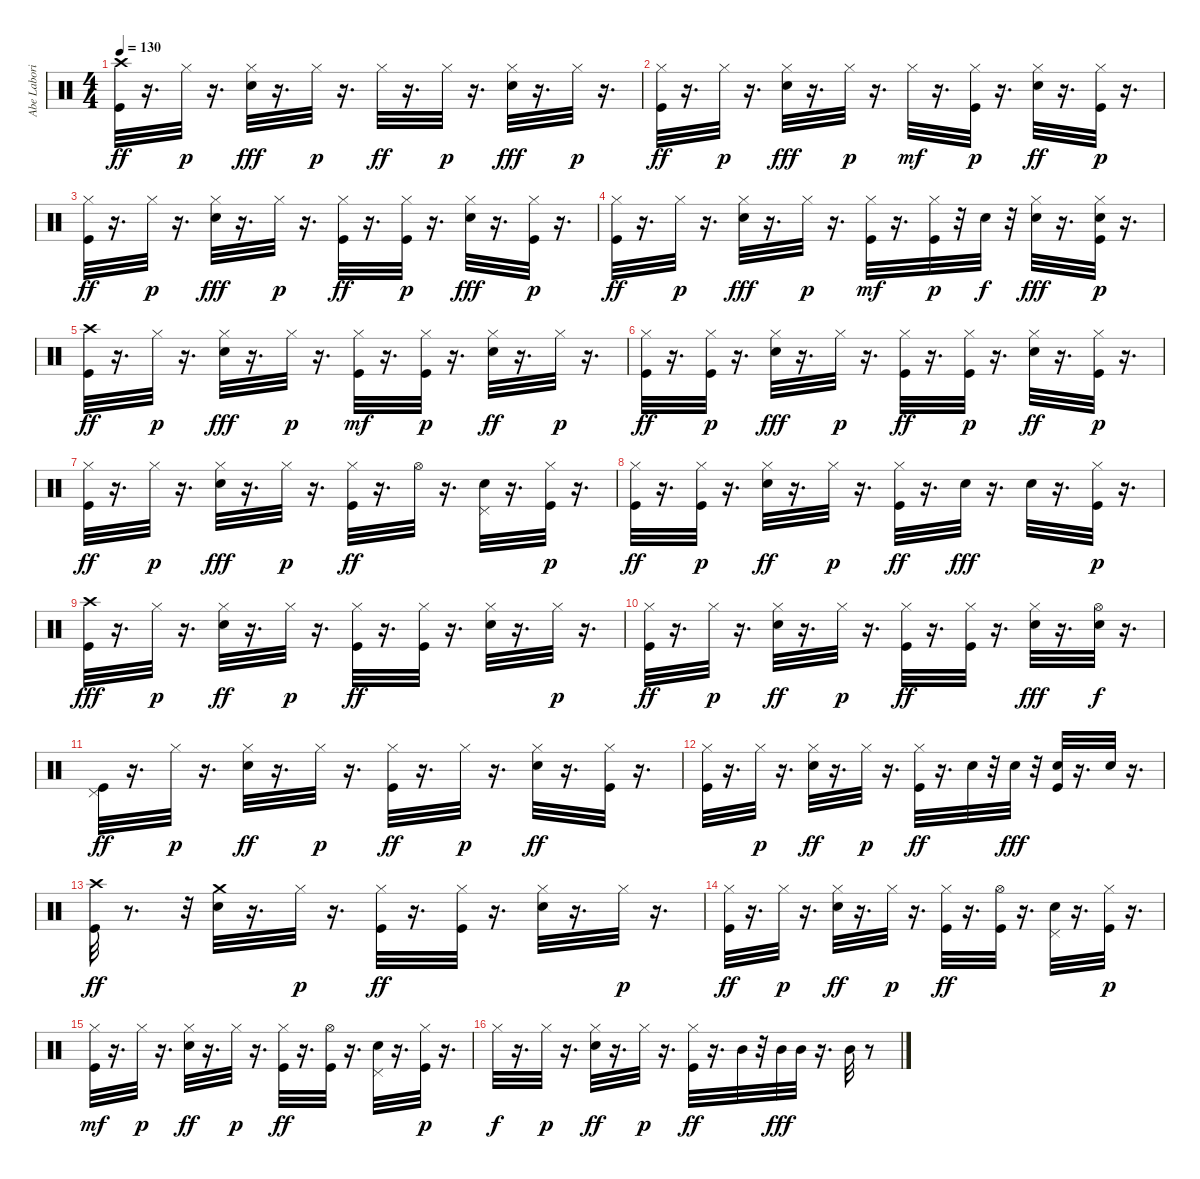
\track ("Abe Laboriel, Jr." "Abe Labori") {instrument percussion}
\staff {score}
\articulation defaults
\ts (4 4)
\tempo 130
\clef neutral
\ks c
("Crash high (hit)" "Kick (hit)").32{dy ff} r.16{d} "Hi-Hat (closed)".32{dy p} r.16{d} ("Snare (hit) 2" "Hi-Hat (closed)").32{dy fff} r.16{d} "Hi-Hat (closed)".32{dy p} r.16{d} "Hi-Hat (closed)".32{dy ff} r.16{d} "Hi-Hat (closed)".32{dy p} r.16{d} ("Hi-Hat (closed)" "Snare (hit) 2").32{dy fff} r.16{d} "Hi-Hat (closed)".32{dy p} r.16{d} |
("Hi-Hat (closed)" "Kick (hit)").32{dy ff} r.16{d} "Hi-Hat (closed)".32{dy p} r.16{d} ("Snare (hit) 2" "Hi-Hat (closed)").32{dy fff} r.16{d} "Hi-Hat (closed)".32{dy p} r.16{d} "Hi-Hat (closed)".32{dy mf} r.16{d} ("Kick (hit)" "Hi-Hat (closed)").32{dy p} r.16{d} ("Hi-Hat (closed)" "Snare (hit) 2").32{dy ff} r.16{d} ("Kick (hit)" "Hi-Hat (closed)").32{dy p} r.16{d} |
("Hi-Hat (closed)" "Kick (hit)").32{dy ff} r.16{d} "Hi-Hat (closed)".32{dy p} r.16{d} ("Snare (hit) 2" "Hi-Hat (closed)").32{dy fff} r.16{d} "Hi-Hat (closed)".32{dy p} r.16{d} ("Hi-Hat (closed)" "Kick (hit)").32{dy ff} r.16{d} ("Kick (hit)" "Hi-Hat (closed)").32{dy p} r.16{d} ("Snare (hit) 2" "Hi-Hat (closed)").32{dy fff} r.16{d} ("Kick (hit)" "Hi-Hat (closed)").32{dy p} r.16{d} |
("Hi-Hat (closed)" "Kick (hit)").32{dy ff} r.16{d} "Hi-Hat (closed)".32{dy p} r.16{d} ("Snare (hit) 2" "Hi-Hat (closed)").32{dy fff} r.16{d} "Hi-Hat (closed)".32{dy p} r.16{d} ("Kick (hit)" "Hi-Hat (closed)").32{dy mf} r.16{d} ("Kick (hit)" "Hi-Hat (closed)").32{dy p} r.32 "Snare (hit) 2".32{dy f} r.32 ("Hi-Hat (closed)" "Snare (hit) 2").32{dy fff} r.16{d} ("Kick (hit)" "Snare (hit) 2" "Hi-Hat (closed)").32{dy p} r.16{d} |
("Kick (hit)" "Crash high (hit)").32{dy ff} r.16{d} "Hi-Hat (closed)".32{dy p} r.16{d} ("Snare (hit) 2" "Hi-Hat (closed)").32{dy fff} r.16{d} "Hi-Hat (closed)".32{dy p} r.16{d} ("Kick (hit)" "Hi-Hat (closed)").32{dy mf} r.16{d} ("Kick (hit)" "Hi-Hat (closed)").32{dy p} r.16{d} ("Hi-Hat (closed)" "Snare (hit) 2").32{dy ff} r.16{d} "Hi-Hat (closed)".32{dy p} r.16{d} |
("Hi-Hat (closed)" "Kick (hit)").32{dy ff} r.16{d} ("Kick (hit)" "Hi-Hat (closed)").32{dy p} r.16{d} ("Snare (hit) 2" "Hi-Hat (closed)").32{dy fff} r.16{d} "Hi-Hat (closed)".32{dy p} r.16{d} ("Hi-Hat (closed)" "Kick (hit)").32{dy ff} r.16{d} ("Kick (hit)" "Hi-Hat (closed)").32{dy p} r.16{d} ("Hi-Hat (closed)" "Snare (hit) 2").32{dy ff} r.16{d} ("Kick (hit)" "Hi-Hat (closed)").32{dy p} r.16{d} |
("Hi-Hat (closed)" "Kick (hit)").32{dy ff} r.16{d} "Hi-Hat (closed)".32{dy p} r.16{d} ("Snare (hit) 2" "Hi-Hat (closed)").32{dy fff} r.16{d} "Hi-Hat (closed)".32{dy p} r.16{d} ("Hi-Hat (closed)" "Kick (hit)").32{dy ff} r.16{d} "Hi-Hat (open)".32 r.16{d} ("Pedal Hi-Hat (hit)" "Snare (hit) 2").32 r.16{d} ("Kick (hit)" "Hi-Hat (closed)").32{dy p} r.16{d} |
("Hi-Hat (closed)" "Kick (hit)").32{dy ff} r.16{d} ("Kick (hit)" "Hi-Hat (closed)").32{dy p} r.16{d} ("Hi-Hat (closed)" "Snare (hit) 2").32{dy ff} r.16{d} "Hi-Hat (closed)".32{dy p} r.16{d} ("Hi-Hat (closed)" "Kick (hit)").32{dy ff} r.16{d} "Snare (hit) 2".32{dy fff} r.16{d} "Snare (hit) 2".32 r.16{d} ("Kick (hit)" "Hi-Hat (closed)").32{dy p} r.16{d} |
("Kick (hit)" "Crash high (hit)").32{dy fff} r.16{d} "Hi-Hat (closed)".32{dy p} r.16{d} ("Snare (hit) 2" "Hi-Hat (closed)").32{dy ff} r.16{d} "Hi-Hat (closed)".32{dy p} r.16{d} ("Kick (hit)" "Hi-Hat (closed)").32{dy ff} r.16{d} ("Hi-Hat (closed)" "Kick (hit)").32 r.16{d} ("Snare (hit) 2" "Hi-Hat (closed)").32 r.16{d} "Hi-Hat (closed)".32{dy p} r.16{d} |
("Kick (hit)" "Hi-Hat (closed)").32{dy ff} r.16{d} "Hi-Hat (closed)".32{dy p} r.16{d} ("Hi-Hat (closed)" "Snare (hit) 2").32{dy ff} r.16{d} "Hi-Hat (closed)".32{dy p} r.16{d} ("Kick (hit)" "Hi-Hat (closed)").32{dy ff} r.16{d} ("Hi-Hat (closed)" "Kick (hit)").32 r.16{d} ("Snare (hit) 2" "Hi-Hat (closed)").32{dy fff} r.16{d} ("Snare (hit) 2" "Hi-Hat (open)").32{dy f} r.16{d} |
("Pedal Hi-Hat (hit)" "Kick (hit)").32{dy ff} r.16{d} "Hi-Hat (closed)".32{dy p} r.16{d} ("Snare (hit) 2" "Hi-Hat (closed)").32{dy ff} r.16{d} "Hi-Hat (closed)".32{dy p} r.16{d} ("Kick (hit)" "Hi-Hat (closed)").32{dy ff} r.16{d} "Hi-Hat (closed)".32{dy p} r.16{d} ("Snare (hit) 2" "Hi-Hat (closed)").32{dy ff} r.16{d} ("Hi-Hat (closed)" "Kick (hit)").32 r.16{d} |
("Kick (hit)" "Hi-Hat (closed)").32 r.16{d} "Hi-Hat (closed)".32{dy p} r.16{d} ("Hi-Hat (closed)" "Snare (hit) 2").32{dy ff} r.16{d} "Hi-Hat (closed)".32{dy p} r.16{d} ("Hi-Hat (closed)" "Kick (hit)").32{dy ff} r.16{d} "Snare (hit) 2".32 r.32 "Snare (hit) 2".32{dy fff} r.32 ("Snare (hit) 2" "Kick (hit)").32 r.16{d} "Snare (hit) 2".32 r.16{d} |
("Kick (hit)" "Crash high (hit)").32{dy ff} r.8{d} r.32 ("Crash medium (hit)" "Snare (hit) 2").32 r.16{d} "Hi-Hat (closed)".32{dy p} r.16{d} ("Kick (hit)" "Hi-Hat (closed)").32{dy ff} r.16{d} ("Hi-Hat (closed)" "Kick (hit)").32 r.16{d} ("Hi-Hat (closed)" "Snare (hit) 2").32 r.16{d} "Hi-Hat (closed)".32{dy p} r.16{d} |
("Hi-Hat (closed)" "Kick (hit)").32{dy ff} r.16{d} "Hi-Hat (closed)".32{dy p} r.16{d} ("Hi-Hat (closed)" "Snare (hit) 2").32{dy ff} r.16{d} "Hi-Hat (closed)".32{dy p} r.16{d} ("Hi-Hat (closed)" "Kick (hit)").32{dy ff} r.16{d} ("Hi-Hat (open)" "Kick (hit)").32 r.16{d} ("Snare (hit) 2" "Pedal Hi-Hat (hit)").32 r.16{d} ("Kick (hit)" "Hi-Hat (closed)").32{dy p} r.16{d} |
("Kick (hit)" "Hi-Hat (closed)").32{dy mf} r.16{d} "Hi-Hat (closed)".32{dy p} r.16{d} ("Hi-Hat (closed)" "Snare (hit) 2").32{dy ff} r.16{d} "Hi-Hat (closed)".32{dy p} r.16{d} ("Hi-Hat (closed)" "Kick (hit)").32{dy ff} r.16{d} ("Kick (hit)" "Hi-Hat (open)").32 r.16{d} ("Pedal Hi-Hat (hit)" "Snare (hit) 2").32 r.16{d} ("Kick (hit)" "Hi-Hat (closed)").32{dy p} r.16{d} |
"Hi-Hat (closed)".32{dy f} r.16{d} "Hi-Hat (closed)".32{dy p} r.16{d} ("Hi-Hat (closed)" "Snare (hit) 2").32{dy ff} r.16{d} "Hi-Hat (closed)".32{dy p} r.16{d} ("Hi-Hat (closed)" "Kick (hit)").32{dy ff} r.16{d} "Mid Tom (hit)".32 r.32 "Mid Tom (hit)".32{dy fff} "Mid Tom (hit)".32 r.16{d} "Mid Tom (hit)".32 r.8
